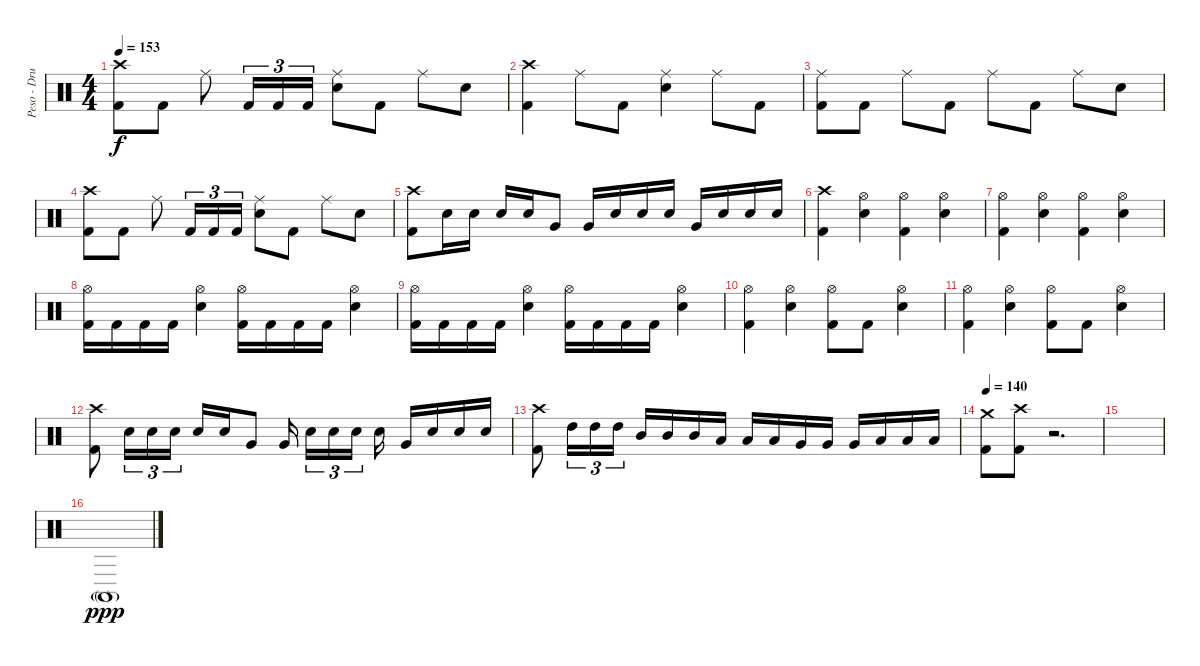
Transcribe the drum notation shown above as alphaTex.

\track ("Peso - Drums" "Peso - Dru") {instrument percussion}
\staff {score}
\articulation defaults
\ts (4 4)
\tempo 153
\clef neutral
\ks c
("Crash high (hit)" "Kick (hit) 2").8{dy f} "Kick (hit) 2".8 "Ride (middle)".8 "Kick (hit) 2".16{tu (3 2)} "Kick (hit) 2".16{tu (3 2)} "Kick (hit) 2".16{tu (3 2)} ("Ride (middle)" "Electric Snare (hit)").8 "Kick (hit) 2".8 "Ride (middle)".8 "Electric Snare (hit)".8 |
("Crash high (hit)" "Kick (hit) 2").4 "Ride (middle)".8 "Kick (hit) 2".8 ("Ride (middle)" "Electric Snare (hit)").4 "Ride (middle)".8 "Kick (hit) 2".8 |
("Ride (middle)" "Kick (hit) 2").8 "Kick (hit) 2".8 "Ride (middle)".8 "Kick (hit) 2".8 "Ride (middle)".8 "Kick (hit) 2".8 "Ride (middle)".8 "Electric Snare (hit)".8 |
("Crash high (hit)" "Kick (hit) 2").8 "Kick (hit) 2".8 "Ride (middle)".8 "Kick (hit) 2".16{tu (3 2)} "Kick (hit) 2".16{tu (3 2)} "Kick (hit) 2".16{tu (3 2)} ("Ride (middle)" "Electric Snare (hit)").8 "Kick (hit) 2".8 "Ride (middle)".8 "Electric Snare (hit)".8 |
("Crash high (hit)" "Kick (hit) 2").8 "Electric Snare (hit)".16 "Electric Snare (hit)".16 "Electric Snare (hit)".16 "Electric Snare (hit)".16 "Very Low Tom (hit)".8 "Very Low Tom (hit)".16 "Electric Snare (hit)".16 "Electric Snare (hit)".16 "Electric Snare (hit)".16 "Very Low Tom (hit)".16 "Electric Snare (hit)".16 "Electric Snare (hit)".16 "Electric Snare (hit)".16 |
("Crash high (hit)" "Kick (hit) 2").4 ("Hi-Hat (open)" "Electric Snare (hit)").4 ("Hi-Hat (open)" "Kick (hit) 2").4 ("Hi-Hat (open)" "Electric Snare (hit)").4 |
("Hi-Hat (open)" "Kick (hit) 2").4 ("Hi-Hat (open)" "Electric Snare (hit)").4 ("Hi-Hat (open)" "Kick (hit) 2").4 ("Hi-Hat (open)" "Electric Snare (hit)").4 |
("Hi-Hat (open)" "Kick (hit) 2").16 "Kick (hit) 2".16 "Kick (hit) 2".16 "Kick (hit) 2".16 ("Hi-Hat (open)" "Electric Snare (hit)").4 ("Hi-Hat (open)" "Kick (hit) 2").16 "Kick (hit) 2".16 "Kick (hit) 2".16 "Kick (hit) 2".16 ("Hi-Hat (open)" "Electric Snare (hit)").4 |
("Hi-Hat (open)" "Kick (hit) 2").16 "Kick (hit) 2".16 "Kick (hit) 2".16 "Kick (hit) 2".16 ("Hi-Hat (open)" "Electric Snare (hit)").4 ("Hi-Hat (open)" "Kick (hit) 2").16 "Kick (hit) 2".16 "Kick (hit) 2".16 "Kick (hit) 2".16 ("Hi-Hat (open)" "Electric Snare (hit)").4 |
("Hi-Hat (open)" "Kick (hit) 2").4 ("Hi-Hat (open)" "Electric Snare (hit)").4 ("Hi-Hat (open)" "Kick (hit) 2").8 "Kick (hit) 2".8 ("Hi-Hat (open)" "Electric Snare (hit)").4 |
("Hi-Hat (open)" "Kick (hit) 2").4 ("Hi-Hat (open)" "Electric Snare (hit)").4 ("Hi-Hat (open)" "Kick (hit) 2").8 "Kick (hit) 2".8 ("Hi-Hat (open)" "Electric Snare (hit)").4 |
("Crash high (hit)" "Kick (hit) 2").8 "Electric Snare (hit)".16{tu (3 2)} "Electric Snare (hit)".16{tu (3 2)} "Electric Snare (hit)".16{tu (3 2)} "Electric Snare (hit)".16 "Electric Snare (hit)".16 "Very Low Tom (hit)".8 "Very Low Tom (hit)".16{beam splitsecondary} "Electric Snare (hit)".16{tu (3 2)} "Electric Snare (hit)".16{tu (3 2)} "Electric Snare (hit)".16{tu (3 2) beam splitsecondary} "Electric Snare (hit)".16 "Very Low Tom (hit)".16 "Electric Snare (hit)".16 "Electric Snare (hit)".16 "Electric Snare (hit)".16 |
("Crash high (hit)" "Kick (hit) 2").8 "High Tom (hit)".16{tu (3 2)} "High Tom (hit)".16{tu (3 2)} "High Tom (hit)".16{tu (3 2)} "Mid Tom (hit)".16 "Mid Tom (hit)".16 "Mid Tom (hit)".16 "Low Tom (hit)".16 "Low Tom (hit)".16 "Low Tom (hit)".16 "Very Low Tom (hit)".16 "Very Low Tom (hit)".16 "Very Low Tom (hit)".16 "Low Floor Tom (hit)".16 "Low Floor Tom (hit)".16 "Low Floor Tom (hit)".16 |
\tempo 140
("Crash medium (hit)" "Kick (hit) 2").8 ("Crash high (hit)" "Kick (hit) 2").8 r.2{d} |
|
"Conga high (mute)"{g}.1{dy ppp}
